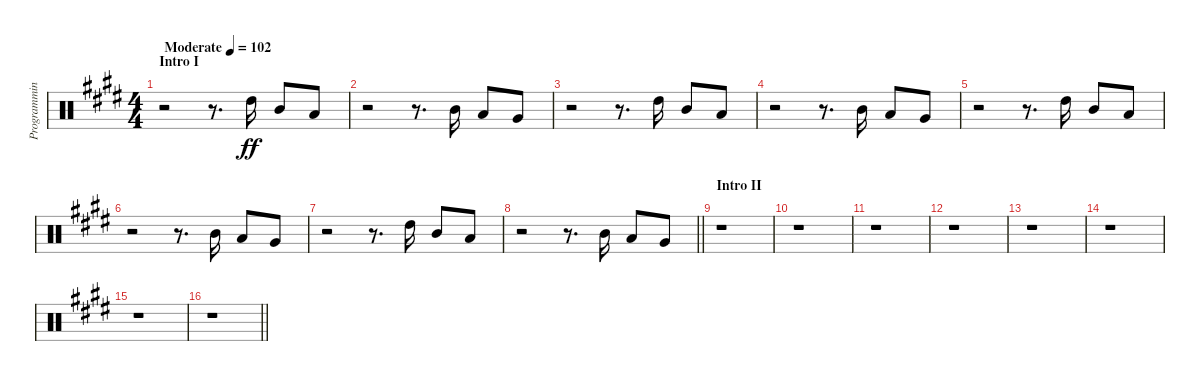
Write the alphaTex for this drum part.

\track ("Programming" "Programmin") {instrument percussion}
\staff {score}
\articulation defaults
\ts (4 4)
\section ("" "Intro I")
\tempo (102 "Moderate")
\clef neutral
\ks e
r.2{dy ff} r.8{d} "High Tom (hit)".16 "Mid Tom (hit)".8 "Low Tom (hit)".8 |
r.2 r.8{d} "Mid Tom (hit)".16 "Low Tom (hit)".8 "Very Low Tom (hit)".8 |
r.2 r.8{d} "High Tom (hit)".16 "Mid Tom (hit)".8 "Low Tom (hit)".8 |
r.2 r.8{d} "Mid Tom (hit)".16 "Low Tom (hit)".8 "Very Low Tom (hit)".8 |
r.2 r.8{d} "High Tom (hit)".16 "Mid Tom (hit)".8 "Low Tom (hit)".8 |
r.2 r.8{d} "Mid Tom (hit)".16 "Low Tom (hit)".8 "Very Low Tom (hit)".8 |
r.2 r.8{d} "High Tom (hit)".16 "Mid Tom (hit)".8 "Low Tom (hit)".8 |
\barLineRight lightlight
r.2 r.8{d} "Mid Tom (hit)".16 "Low Tom (hit)".8 "Very Low Tom (hit)".8 |
\section ("" "Intro II")
r.1 |
r.1 |
r.1 |
r.1 |
r.1 |
r.1 |
r.1 |
\barLineRight lightlight
r.1
